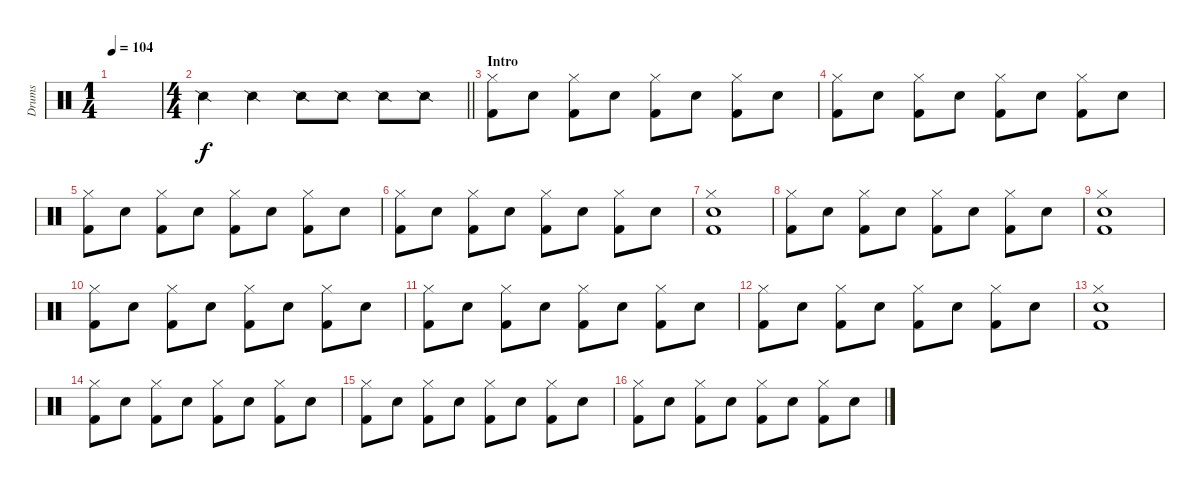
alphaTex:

\track ("Drums" "Drums") {instrument percussion}
\staff {score}
\articulation defaults
\ts (1 4)
\tempo 104
\clef neutral
\ks c
|
\ts (4 4)
\barLineRight lightlight "Snare (side stick) 2".4 "Snare (side stick) 2".4 "Snare (side stick) 2".8 "Snare (side stick) 2".8 "Snare (side stick) 2".8 "Snare (side stick) 2".8
|
\section ("" "Intro")
("Hi-Hat (closed)" "Kick (hit) 2").8 "Snare (hit) 2".8 ("Hi-Hat (closed)" "Kick (hit) 2").8 "Snare (hit) 2".8 ("Hi-Hat (closed)" "Kick (hit) 2").8 "Snare (hit) 2".8 ("Hi-Hat (closed)" "Kick (hit) 2").8 "Snare (hit) 2".8 |
("Hi-Hat (closed)" "Kick (hit) 2").8 "Snare (hit) 2".8 ("Hi-Hat (closed)" "Kick (hit) 2").8 "Snare (hit) 2".8 ("Hi-Hat (closed)" "Kick (hit) 2").8 "Snare (hit) 2".8 ("Hi-Hat (closed)" "Kick (hit) 2").8 "Snare (hit) 2".8 |
("Hi-Hat (closed)" "Kick (hit) 2").8 "Snare (hit) 2".8 ("Hi-Hat (closed)" "Kick (hit) 2").8 "Snare (hit) 2".8 ("Hi-Hat (closed)" "Kick (hit) 2").8 "Snare (hit) 2".8 ("Hi-Hat (closed)" "Kick (hit) 2").8 "Snare (hit) 2".8 |
("Hi-Hat (closed)" "Kick (hit) 2").8 "Snare (hit) 2".8 ("Hi-Hat (closed)" "Kick (hit) 2").8 "Snare (hit) 2".8 ("Hi-Hat (closed)" "Kick (hit) 2").8 "Snare (hit) 2".8 ("Hi-Hat (closed)" "Kick (hit) 2").8 "Snare (hit) 2".8 |
("Hi-Hat (closed)" "Snare (hit) 2" "Kick (hit) 2").1 |
("Hi-Hat (closed)" "Kick (hit) 2").8 "Snare (hit) 2".8 ("Hi-Hat (closed)" "Kick (hit) 2").8 "Snare (hit) 2".8 ("Hi-Hat (closed)" "Kick (hit) 2").8 "Snare (hit) 2".8 ("Hi-Hat (closed)" "Kick (hit) 2").8 "Snare (hit) 2".8 |
("Hi-Hat (closed)" "Snare (hit) 2" "Kick (hit) 2").1 |
("Hi-Hat (closed)" "Kick (hit) 2").8 "Snare (hit) 2".8 ("Hi-Hat (closed)" "Kick (hit) 2").8 "Snare (hit) 2".8 ("Hi-Hat (closed)" "Kick (hit) 2").8 "Snare (hit) 2".8 ("Hi-Hat (closed)" "Kick (hit) 2").8 "Snare (hit) 2".8 |
("Hi-Hat (closed)" "Kick (hit) 2").8 "Snare (hit) 2".8 ("Hi-Hat (closed)" "Kick (hit) 2").8 "Snare (hit) 2".8 ("Hi-Hat (closed)" "Kick (hit) 2").8 "Snare (hit) 2".8 ("Hi-Hat (closed)" "Kick (hit) 2").8 "Snare (hit) 2".8 |
("Hi-Hat (closed)" "Kick (hit) 2").8 "Snare (hit) 2".8 ("Hi-Hat (closed)" "Kick (hit) 2").8 "Snare (hit) 2".8 ("Hi-Hat (closed)" "Kick (hit) 2").8 "Snare (hit) 2".8 ("Hi-Hat (closed)" "Kick (hit) 2").8 "Snare (hit) 2".8 |
("Hi-Hat (closed)" "Snare (hit) 2" "Kick (hit) 2").1 |
("Hi-Hat (closed)" "Kick (hit) 2").8 "Snare (hit) 2".8 ("Hi-Hat (closed)" "Kick (hit) 2").8 "Snare (hit) 2".8 ("Hi-Hat (closed)" "Kick (hit) 2").8 "Snare (hit) 2".8 ("Hi-Hat (closed)" "Kick (hit) 2").8 "Snare (hit) 2".8 |
("Hi-Hat (closed)" "Kick (hit) 2").8 "Snare (hit) 2".8 ("Hi-Hat (closed)" "Kick (hit) 2").8 "Snare (hit) 2".8 ("Hi-Hat (closed)" "Kick (hit) 2").8 "Snare (hit) 2".8 ("Hi-Hat (closed)" "Kick (hit) 2").8 "Snare (hit) 2".8 |
("Hi-Hat (closed)" "Kick (hit) 2").8 "Snare (hit) 2".8 ("Hi-Hat (closed)" "Kick (hit) 2").8 "Snare (hit) 2".8 ("Hi-Hat (closed)" "Kick (hit) 2").8 "Snare (hit) 2".8 ("Hi-Hat (closed)" "Kick (hit) 2").8 "Snare (hit) 2".8
